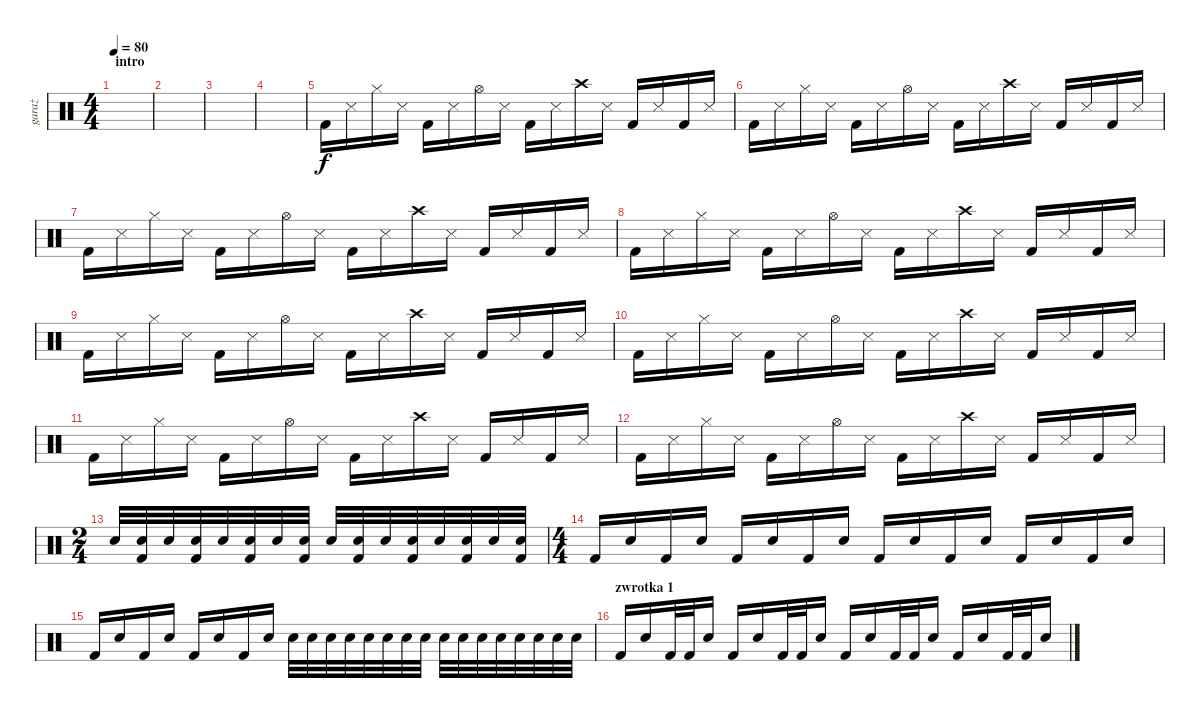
\track ("garaż" "garaż") {instrument percussion}
\staff {score}
\articulation defaults
\ts (4 4)
\section ("" "intro")
\tempo 80
\clef neutral
\ks c
|
|
|
|
"Kick (hit) 2".16 "Snare (side stick) 3".16 "Hi-Hat (closed)".16 "Snare (side stick) 3".16 "Kick (hit) 2".16 "Snare (side stick) 3".16 "Hi-Hat (open)".16 "Snare (side stick) 3".16 "Kick (hit) 2".16 "Snare (side stick) 3".16 "Crash high (hit)".16 "Snare (side stick) 3".16 "Kick (hit) 2".16 "Snare (side stick) 3".16 "Kick (hit) 2".16 "Snare (side stick) 3".16 |
"Kick (hit) 2".16 "Snare (side stick) 3".16 "Hi-Hat (closed)".16 "Snare (side stick) 3".16 "Kick (hit) 2".16 "Snare (side stick) 3".16 "Hi-Hat (open)".16 "Snare (side stick) 3".16 "Kick (hit) 2".16 "Snare (side stick) 3".16 "Crash high (hit)".16 "Snare (side stick) 3".16 "Kick (hit) 2".16 "Snare (side stick) 3".16 "Kick (hit) 2".16 "Snare (side stick) 3".16 |
"Kick (hit) 2".16 "Snare (side stick) 3".16 "Hi-Hat (closed)".16 "Snare (side stick) 3".16 "Kick (hit) 2".16 "Snare (side stick) 3".16 "Hi-Hat (open)".16 "Snare (side stick) 3".16 "Kick (hit) 2".16 "Snare (side stick) 3".16 "Crash high (hit)".16 "Snare (side stick) 3".16 "Kick (hit) 2".16 "Snare (side stick) 3".16 "Kick (hit) 2".16 "Snare (side stick) 3".16 |
"Kick (hit) 2".16 "Snare (side stick) 3".16 "Hi-Hat (closed)".16 "Snare (side stick) 3".16 "Kick (hit) 2".16 "Snare (side stick) 3".16 "Hi-Hat (open)".16 "Snare (side stick) 3".16 "Kick (hit) 2".16 "Snare (side stick) 3".16 "Crash high (hit)".16 "Snare (side stick) 3".16 "Kick (hit) 2".16 "Snare (side stick) 3".16 "Kick (hit) 2".16 "Snare (side stick) 3".16 |
"Kick (hit) 2".16 "Snare (side stick) 3".16 "Hi-Hat (closed)".16 "Snare (side stick) 3".16 "Kick (hit) 2".16 "Snare (side stick) 3".16 "Hi-Hat (open)".16 "Snare (side stick) 3".16 "Kick (hit) 2".16 "Snare (side stick) 3".16 "Crash high (hit)".16 "Snare (side stick) 3".16 "Kick (hit) 2".16 "Snare (side stick) 3".16 "Kick (hit) 2".16 "Snare (side stick) 3".16 |
"Kick (hit) 2".16 "Snare (side stick) 3".16 "Hi-Hat (closed)".16 "Snare (side stick) 3".16 "Kick (hit) 2".16 "Snare (side stick) 3".16 "Hi-Hat (open)".16 "Snare (side stick) 3".16 "Kick (hit) 2".16 "Snare (side stick) 3".16 "Crash high (hit)".16 "Snare (side stick) 3".16 "Kick (hit) 2".16 "Snare (side stick) 3".16 "Kick (hit) 2".16 "Snare (side stick) 3".16 |
"Kick (hit) 2".16 "Snare (side stick) 3".16 "Hi-Hat (closed)".16 "Snare (side stick) 3".16 "Kick (hit) 2".16 "Snare (side stick) 3".16 "Hi-Hat (open)".16 "Snare (side stick) 3".16 "Kick (hit) 2".16 "Snare (side stick) 3".16 "Crash high (hit)".16 "Snare (side stick) 3".16 "Kick (hit) 2".16 "Snare (side stick) 3".16 "Kick (hit) 2".16 "Snare (side stick) 3".16 |
"Kick (hit) 2".16 "Snare (side stick) 3".16 "Hi-Hat (closed)".16 "Snare (side stick) 3".16 "Kick (hit) 2".16 "Snare (side stick) 3".16 "Hi-Hat (open)".16 "Snare (side stick) 3".16 "Kick (hit) 2".16 "Snare (side stick) 3".16 "Crash high (hit)".16 "Snare (side stick) 3".16 "Kick (hit) 2".16 "Snare (side stick) 3".16 "Kick (hit) 2".16 "Snare (side stick) 3".16 |
\ts (2 4)
"Snare (hit) 2".32 ("Snare (hit) 2" "Kick (hit) 2").32 "Snare (hit) 2".32 ("Snare (hit) 2" "Kick (hit) 2").32 "Snare (hit) 2".32 ("Snare (hit) 2" "Kick (hit) 2").32 "Snare (hit) 2".32 ("Snare (hit) 2" "Kick (hit) 2").32 "Snare (hit) 2".32 ("Snare (hit) 2" "Kick (hit) 2").32 "Snare (hit) 2".32 ("Snare (hit) 2" "Kick (hit) 2").32 "Snare (hit) 2".32 ("Snare (hit) 2" "Kick (hit) 2").32 "Snare (hit) 2".32 ("Snare (hit) 2" "Kick (hit) 2").32 |
\ts (4 4)
"Kick (hit) 2".16 "Snare (hit) 2".16 "Kick (hit) 2".16 "Snare (hit) 2".16 "Kick (hit) 2".16 "Snare (hit) 2".16 "Kick (hit) 2".16 "Snare (hit) 2".16 "Kick (hit) 2".16 "Snare (hit) 2".16 "Kick (hit) 2".16 "Snare (hit) 2".16 "Kick (hit) 2".16 "Snare (hit) 2".16 "Kick (hit) 2".16 "Snare (hit) 2".16 |
"Kick (hit) 2".16 "Snare (hit) 2".16 "Kick (hit) 2".16 "Snare (hit) 2".16 "Kick (hit) 2".16 "Snare (hit) 2".16 "Kick (hit) 2".16 "Snare (hit) 2".16 "Snare (hit) 2".32 "Snare (hit) 2".32 "Snare (hit) 2".32 "Snare (hit) 2".32 "Snare (hit) 2".32 "Snare (hit) 2".32 "Snare (hit) 2".32 "Snare (hit) 2".32 "Snare (hit) 2".32 "Snare (hit) 2".32 "Snare (hit) 2".32 "Snare (hit) 2".32 "Snare (hit) 2".32 "Snare (hit) 2".32 "Snare (hit) 2".32 "Snare (hit) 2".32 |
\section ("" "zwrotka 1")
"Kick (hit) 2".16 "Snare (hit) 2".16 "Kick (hit) 2".32 "Kick (hit) 2".32 "Snare (hit) 2".16 "Kick (hit) 2".16 "Snare (hit) 2".16 "Kick (hit) 2".32 "Kick (hit) 2".32 "Snare (hit) 2".16 "Kick (hit) 2".16 "Snare (hit) 2".16 "Kick (hit) 2".32 "Kick (hit) 2".32 "Snare (hit) 2".16 "Kick (hit) 2".16 "Snare (hit) 2".16 "Kick (hit) 2".32 "Kick (hit) 2".32 "Snare (hit) 2".16
